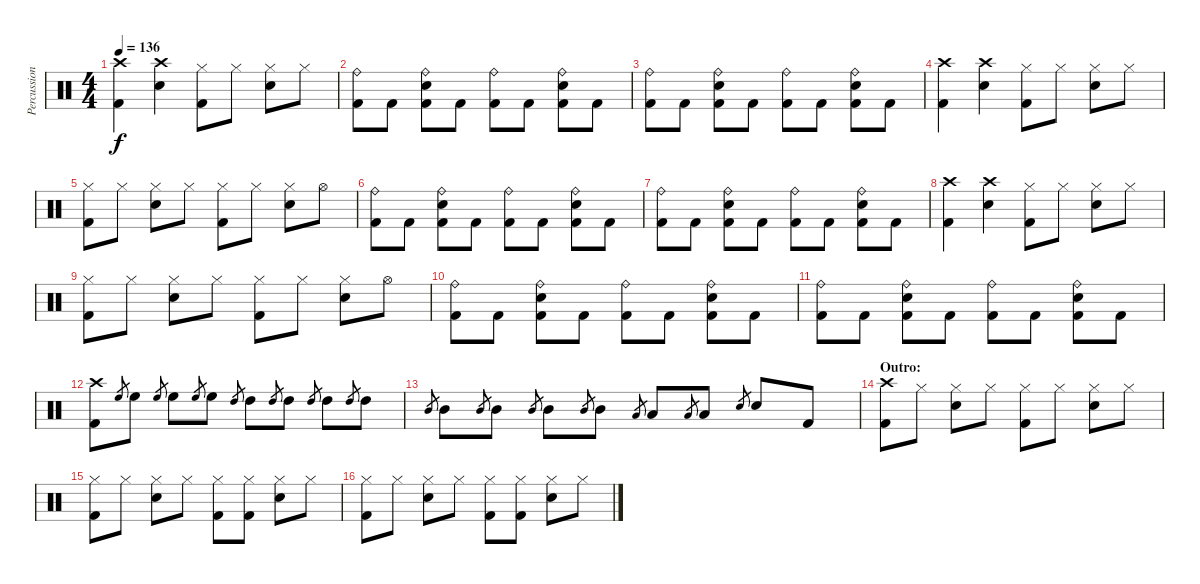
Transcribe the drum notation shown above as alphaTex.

\track ("Percussion" "Percussion") {instrument percussion}
\staff {score}
\articulation defaults
\ts (4 4)
\tempo 136
\clef neutral
\ks c
("Crash high (hit)" "Kick (hit) 2").4{dy f} ("Crash high (hit)" "Electric Snare (hit)").4 ("Hi-Hat (closed)" "Kick (hit) 2").8 "Hi-Hat (closed)".8 ("Hi-Hat (closed)" "Electric Snare (hit)").8 "Hi-Hat (closed)".8 |
("Ride (bell)" "Kick (hit) 2").8 "Kick (hit) 2".8 ("Ride (bell)" "Electric Snare (hit)" "Kick (hit) 2").8 "Kick (hit) 2".8 ("Ride (bell)" "Kick (hit) 2").8 "Kick (hit) 2".8 ("Ride (bell)" "Electric Snare (hit)" "Kick (hit) 2").8 "Kick (hit) 2".8 |
("Ride (bell)" "Kick (hit) 2").8 "Kick (hit) 2".8 ("Ride (bell)" "Electric Snare (hit)" "Kick (hit) 2").8 "Kick (hit) 2".8 ("Ride (bell)" "Kick (hit) 2").8 "Kick (hit) 2".8 ("Ride (bell)" "Electric Snare (hit)" "Kick (hit) 2").8 "Kick (hit) 2".8 |
("Crash high (hit)" "Kick (hit) 2").4 ("Crash high (hit)" "Electric Snare (hit)").4 ("Hi-Hat (closed)" "Kick (hit) 2").8 "Hi-Hat (closed)".8 ("Hi-Hat (closed)" "Electric Snare (hit)").8 "Hi-Hat (closed)".8 |
("Hi-Hat (closed)" "Kick (hit) 2").8 "Hi-Hat (closed)".8 ("Hi-Hat (closed)" "Electric Snare (hit)").8 "Hi-Hat (closed)".8 ("Hi-Hat (closed)" "Kick (hit) 2").8 "Hi-Hat (closed)".8 ("Hi-Hat (closed)" "Electric Snare (hit)").8 "Hi-Hat (open)".8 |
("Ride (bell)" "Kick (hit) 2").8 "Kick (hit) 2".8 ("Ride (bell)" "Electric Snare (hit)" "Kick (hit) 2").8 "Kick (hit) 2".8 ("Ride (bell)" "Kick (hit) 2").8 "Kick (hit) 2".8 ("Ride (bell)" "Electric Snare (hit)" "Kick (hit) 2").8 "Kick (hit) 2".8 |
("Ride (bell)" "Kick (hit) 2").8 "Kick (hit) 2".8 ("Ride (bell)" "Electric Snare (hit)" "Kick (hit) 2").8 "Kick (hit) 2".8 ("Ride (bell)" "Kick (hit) 2").8 "Kick (hit) 2".8 ("Ride (bell)" "Electric Snare (hit)" "Kick (hit) 2").8 "Kick (hit) 2".8 |
("Crash high (hit)" "Kick (hit) 2").4 ("Crash high (hit)" "Electric Snare (hit)").4 ("Hi-Hat (closed)" "Kick (hit) 2").8 "Hi-Hat (closed)".8 ("Hi-Hat (closed)" "Electric Snare (hit)").8 "Hi-Hat (closed)".8 |
("Hi-Hat (closed)" "Kick (hit) 2").8 "Hi-Hat (closed)".8 ("Hi-Hat (closed)" "Electric Snare (hit)").8 "Hi-Hat (closed)".8 ("Hi-Hat (closed)" "Kick (hit) 2").8 "Hi-Hat (closed)".8 ("Hi-Hat (closed)" "Electric Snare (hit)").8 "Hi-Hat (open)".8 |
("Ride (bell)" "Kick (hit) 2").8 "Kick (hit) 2".8 ("Ride (bell)" "Electric Snare (hit)" "Kick (hit) 2").8 "Kick (hit) 2".8 ("Ride (bell)" "Kick (hit) 2").8 "Kick (hit) 2".8 ("Ride (bell)" "Electric Snare (hit)" "Kick (hit) 2").8 "Kick (hit) 2".8 |
("Ride (bell)" "Kick (hit) 2").8 "Kick (hit) 2".8 ("Ride (bell)" "Electric Snare (hit)" "Kick (hit) 2").8 "Kick (hit) 2".8 ("Ride (bell)" "Kick (hit) 2").8 "Kick (hit) 2".8 ("Ride (bell)" "Electric Snare (hit)" "Kick (hit) 2").8 "Kick (hit) 2".8 |
("Crash high (hit)" "Kick (hit) 2").8 "High Floor Tom (hit)".8{gr} "High Floor Tom (hit)".8 "High Floor Tom (hit)".8{gr} "High Floor Tom (hit)".8 "High Floor Tom (hit)".8{gr} "High Floor Tom (hit)".8 "High Tom (hit)".8{gr} "High Tom (hit)".8 "High Tom (hit)".8{gr} "High Tom (hit)".8 "High Tom (hit)".8{gr} "High Tom (hit)".8 "High Tom (hit)".8{gr} "High Tom (hit)".8 |
"Mid Tom (hit)".8{gr} "Mid Tom (hit)".8 "Mid Tom (hit)".8{gr} "Mid Tom (hit)".8 "Mid Tom (hit)".8{gr} "Mid Tom (hit)".8 "Mid Tom (hit)".8{gr} "Mid Tom (hit)".8 "Low Tom (hit)".8{gr} "Low Tom (hit)".8 "Low Tom (hit)".8{gr} "Low Tom (hit)".8 "Electric Snare (hit)".8{gr} "Electric Snare (hit)".8 "Kick (hit) 2".8 |
\section ("" "Outro:")
("Crash high (hit)" "Kick (hit) 2").8 "Hi-Hat (closed)".8 ("Hi-Hat (closed)" "Electric Snare (hit)").8 "Hi-Hat (closed)".8 ("Hi-Hat (closed)" "Kick (hit) 2").8 "Hi-Hat (closed)".8 ("Hi-Hat (closed)" "Electric Snare (hit)").8 "Hi-Hat (closed)".8 |
("Hi-Hat (closed)" "Kick (hit) 2").8 "Hi-Hat (closed)".8 ("Hi-Hat (closed)" "Electric Snare (hit)").8 "Hi-Hat (closed)".8 ("Hi-Hat (closed)" "Kick (hit) 2").8 ("Hi-Hat (closed)" "Kick (hit) 2").8 ("Hi-Hat (closed)" "Electric Snare (hit)").8 "Hi-Hat (closed)".8 |
("Hi-Hat (closed)" "Kick (hit) 2").8 "Hi-Hat (closed)".8 ("Hi-Hat (closed)" "Electric Snare (hit)").8 "Hi-Hat (closed)".8 ("Hi-Hat (closed)" "Kick (hit) 2").8 ("Hi-Hat (closed)" "Kick (hit) 2").8 ("Hi-Hat (closed)" "Electric Snare (hit)").8 "Hi-Hat (closed)".8
